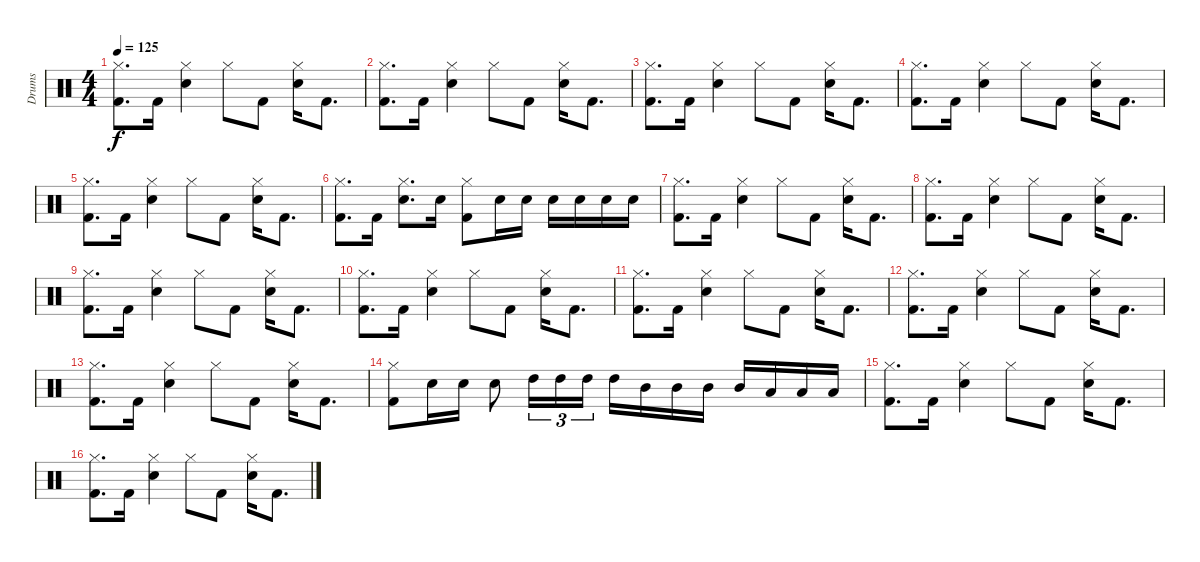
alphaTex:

\track ("Drums" "Drums") {instrument percussion}
\staff {score}
\articulation defaults
\ts (4 4)
\tempo 125
\clef neutral
\ks aminor
("Hi-Hat (closed)" "Kick (hit) 2").8{d dy f} "Kick (hit) 2".16 ("Hi-Hat (closed)" "Electric Snare (hit)").4 "Hi-Hat (closed)".8 "Kick (hit) 2".8 ("Hi-Hat (closed)" "Electric Snare (hit)").16 "Kick (hit) 2".8{d} |
("Hi-Hat (closed)" "Kick (hit) 2").8{d} "Kick (hit) 2".16 ("Hi-Hat (closed)" "Electric Snare (hit)").4 "Hi-Hat (closed)".8 "Kick (hit) 2".8 ("Hi-Hat (closed)" "Electric Snare (hit)").16 "Kick (hit) 2".8{d} |
("Hi-Hat (closed)" "Kick (hit) 2").8{d} "Kick (hit) 2".16 ("Hi-Hat (closed)" "Electric Snare (hit)").4 "Hi-Hat (closed)".8 "Kick (hit) 2".8 ("Hi-Hat (closed)" "Electric Snare (hit)").16 "Kick (hit) 2".8{d} |
("Hi-Hat (closed)" "Kick (hit) 2").8{d} "Kick (hit) 2".16 ("Hi-Hat (closed)" "Electric Snare (hit)").4 "Hi-Hat (closed)".8 "Kick (hit) 2".8 ("Hi-Hat (closed)" "Electric Snare (hit)").16 "Kick (hit) 2".8{d} |
("Hi-Hat (closed)" "Kick (hit) 2").8{d} "Kick (hit) 2".16 ("Hi-Hat (closed)" "Electric Snare (hit)").4 "Hi-Hat (closed)".8 "Kick (hit) 2".8 ("Hi-Hat (closed)" "Electric Snare (hit)").16 "Kick (hit) 2".8{d} |
("Hi-Hat (closed)" "Kick (hit) 2").8{d} "Kick (hit) 2".16 ("Hi-Hat (closed)" "Electric Snare (hit)").8{d} "Electric Snare (hit)".16 ("Hi-Hat (closed)" "Kick (hit) 2").8 "Electric Snare (hit)".16 "Electric Snare (hit)".16 "Electric Snare (hit)".16 "Electric Snare (hit)".16 "Electric Snare (hit)".16 "Electric Snare (hit)".16 |
("Hi-Hat (closed)" "Kick (hit) 2").8{d} "Kick (hit) 2".16 ("Hi-Hat (closed)" "Electric Snare (hit)").4 "Hi-Hat (closed)".8 "Kick (hit) 2".8 ("Hi-Hat (closed)" "Electric Snare (hit)").16 "Kick (hit) 2".8{d} |
("Hi-Hat (closed)" "Kick (hit) 2").8{d} "Kick (hit) 2".16 ("Hi-Hat (closed)" "Electric Snare (hit)").4 "Hi-Hat (closed)".8 "Kick (hit) 2".8 ("Hi-Hat (closed)" "Electric Snare (hit)").16 "Kick (hit) 2".8{d} |
("Hi-Hat (closed)" "Kick (hit) 2").8{d} "Kick (hit) 2".16 ("Hi-Hat (closed)" "Electric Snare (hit)").4 "Hi-Hat (closed)".8 "Kick (hit) 2".8 ("Hi-Hat (closed)" "Electric Snare (hit)").16 "Kick (hit) 2".8{d} |
("Hi-Hat (closed)" "Kick (hit) 2").8{d} "Kick (hit) 2".16 ("Hi-Hat (closed)" "Electric Snare (hit)").4 "Hi-Hat (closed)".8 "Kick (hit) 2".8 ("Hi-Hat (closed)" "Electric Snare (hit)").16 "Kick (hit) 2".8{d} |
("Hi-Hat (closed)" "Kick (hit) 2").8{d} "Kick (hit) 2".16 ("Hi-Hat (closed)" "Electric Snare (hit)").4 "Hi-Hat (closed)".8 "Kick (hit) 2".8 ("Hi-Hat (closed)" "Electric Snare (hit)").16 "Kick (hit) 2".8{d} |
("Hi-Hat (closed)" "Kick (hit) 2").8{d} "Kick (hit) 2".16 ("Hi-Hat (closed)" "Electric Snare (hit)").4 "Hi-Hat (closed)".8 "Kick (hit) 2".8 ("Hi-Hat (closed)" "Electric Snare (hit)").16 "Kick (hit) 2".8{d} |
("Hi-Hat (closed)" "Kick (hit) 2").8{d} "Kick (hit) 2".16 ("Hi-Hat (closed)" "Electric Snare (hit)").4 "Hi-Hat (closed)".8 "Kick (hit) 2".8 ("Hi-Hat (closed)" "Electric Snare (hit)").16 "Kick (hit) 2".8{d} |
("Hi-Hat (closed)" "Kick (hit) 2").8 "Electric Snare (hit)".16 "Electric Snare (hit)".16 "Electric Snare (hit)".8 "High Tom (hit)".16{tu (3 2)} "High Tom (hit)".16{tu (3 2)} "High Tom (hit)".16{tu (3 2)} "High Tom (hit)".16 "Mid Tom (hit)".16 "Mid Tom (hit)".16 "Mid Tom (hit)".16 "Mid Tom (hit)".16 "Low Tom (hit)".16 "Low Tom (hit)".16 "Low Tom (hit)".16 |
("Hi-Hat (closed)" "Kick (hit) 2").8{d} "Kick (hit) 2".16 ("Hi-Hat (closed)" "Electric Snare (hit)").4 "Hi-Hat (closed)".8 "Kick (hit) 2".8 ("Hi-Hat (closed)" "Electric Snare (hit)").16 "Kick (hit) 2".8{d} |
("Hi-Hat (closed)" "Kick (hit) 2").8{d} "Kick (hit) 2".16 ("Hi-Hat (closed)" "Electric Snare (hit)").4 "Hi-Hat (closed)".8 "Kick (hit) 2".8 ("Hi-Hat (closed)" "Electric Snare (hit)").16 "Kick (hit) 2".8{d}
